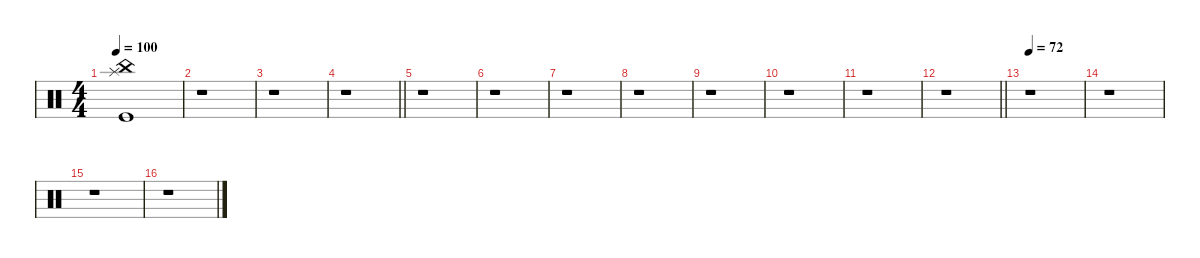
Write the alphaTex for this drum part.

\defaultSystemsLayout 4
\hideDynamics
\bracketExtendMode nobrackets
\singleTrackTrackNamePolicy hidden
\multiTrackTrackNamePolicy hidden
\firstSystemTrackNameMode fullname
\firstSystemTrackNameOrientation horizontal
\otherSystemsTrackNameOrientation horizontal
\track ("Drums" "drm.") {instrument percussion}
\staff {score}
\articulation defaults
\ts (4 4)
\tempo 100
\clef neutral
\ks c
("Splash (hit)" "China (hit)" "Kick (hit)").1{dy f beam Down} |
r.1{beam Down} |
r.1{beam Down} |
\barLineRight lightlight
r.1{beam Down} |
r.1{beam Down} |
r.1{beam Down} |
r.1{beam Down} |
r.1{beam Down} |
r.1{beam Down} |
r.1{beam Down} |
r.1{beam Down} |
\barLineRight lightlight
r.1{beam Down} |
\tempo 72
r.1{beam Down} |
r.1{beam Down} |
r.1{beam Down} |
r.1{beam Down}
